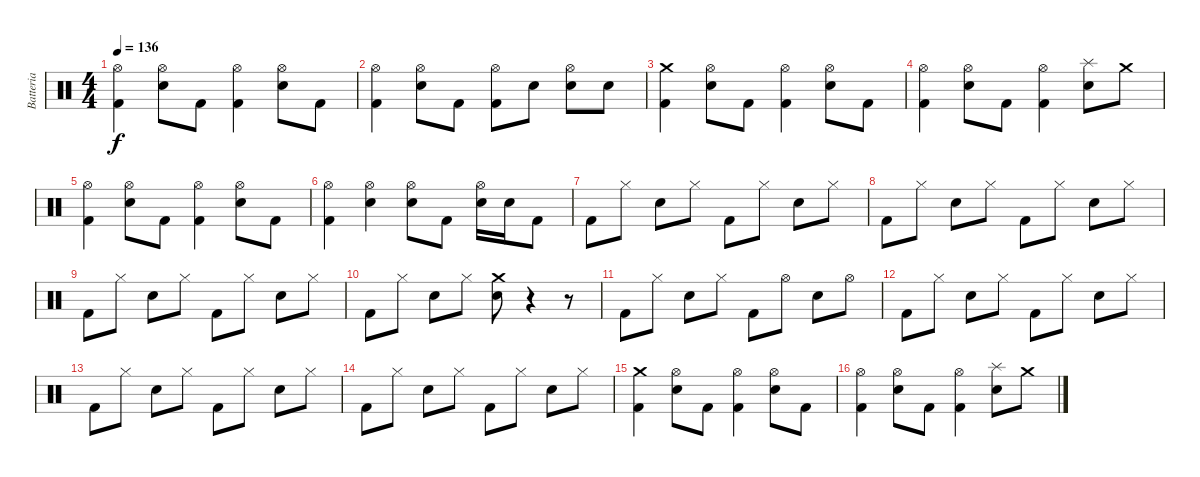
\track ("Batteria" "Batteria") {instrument percussion}
\staff {score}
\articulation defaults
\ts (4 4)
\tempo 136
\clef neutral
\ks c
("Hi-Hat (open)" "Kick (hit) 2").4{dy f} ("Hi-Hat (open)" "Electric Snare (hit)").8 "Kick (hit) 2".8 ("Hi-Hat (open)" "Kick (hit) 2").4 ("Hi-Hat (open)" "Electric Snare (hit)").8 "Kick (hit) 2".8 |
("Hi-Hat (open)" "Kick (hit) 2").4 ("Hi-Hat (open)" "Electric Snare (hit)").8 "Kick (hit) 2".8 ("Hi-Hat (open)" "Kick (hit) 2").8 "Electric Snare (hit)".8 ("Hi-Hat (open)" "Electric Snare (hit)").8 "Electric Snare (hit)".8 |
("Crash medium (hit)" "Kick (hit) 2").4 ("Hi-Hat (open)" "Electric Snare (hit)").8 "Kick (hit) 2".8 ("Hi-Hat (open)" "Kick (hit) 2").4 ("Hi-Hat (open)" "Electric Snare (hit)").8 "Kick (hit) 2".8 |
("Hi-Hat (open)" "Kick (hit) 2").4 ("Hi-Hat (open)" "Electric Snare (hit)").8 "Kick (hit) 2".8 ("Hi-Hat (open)" "Kick (hit) 2").4 ("Splash (hit)" "Electric Snare (hit)").8 "Crash medium (hit)".8 |
("Hi-Hat (open)" "Kick (hit) 2").4 ("Hi-Hat (open)" "Electric Snare (hit)").8 "Kick (hit) 2".8 ("Hi-Hat (open)" "Kick (hit) 2").4 ("Hi-Hat (open)" "Electric Snare (hit)").8 "Kick (hit) 2".8 |
("Hi-Hat (open)" "Kick (hit) 2").4 ("Hi-Hat (open)" "Electric Snare (hit)").4 ("Hi-Hat (open)" "Electric Snare (hit)").8 "Kick (hit) 2".8 ("Hi-Hat (open)" "Electric Snare (hit)").16 "Electric Snare (hit)".16 "Kick (hit) 2".8 |
"Kick (hit) 2".8 "Hi-Hat (closed)".8 "Electric Snare (hit)".8 "Hi-Hat (closed)".8 "Kick (hit) 2".8 "Hi-Hat (closed)".8 "Electric Snare (hit)".8 "Hi-Hat (closed)".8 |
"Kick (hit) 2".8 "Hi-Hat (closed)".8 "Electric Snare (hit)".8 "Hi-Hat (closed)".8 "Kick (hit) 2".8 "Hi-Hat (closed)".8 "Electric Snare (hit)".8 "Hi-Hat (closed)".8 |
"Kick (hit) 2".8 "Hi-Hat (closed)".8 "Electric Snare (hit)".8 "Hi-Hat (closed)".8 "Kick (hit) 2".8 "Hi-Hat (closed)".8 "Electric Snare (hit)".8 "Hi-Hat (closed)".8 |
"Kick (hit) 2".8 "Hi-Hat (closed)".8 "Electric Snare (hit)".8 "Hi-Hat (closed)".8 ("Electric Snare (hit)" "Crash medium (hit)").8 r.4 r.8 |
"Kick (hit) 2".8 "Hi-Hat (closed)".8 "Electric Snare (hit)".8 "Hi-Hat (closed)".8 "Kick (hit) 2".8 "Hi-Hat (open)".8 "Electric Snare (hit)".8 "Hi-Hat (open)".8 |
"Kick (hit) 2".8 "Hi-Hat (closed)".8 "Electric Snare (hit)".8 "Hi-Hat (closed)".8 "Kick (hit) 2".8 "Hi-Hat (closed)".8 "Electric Snare (hit)".8 "Hi-Hat (closed)".8 |
"Kick (hit) 2".8 "Hi-Hat (closed)".8 "Electric Snare (hit)".8 "Hi-Hat (closed)".8 "Kick (hit) 2".8 "Hi-Hat (closed)".8 "Electric Snare (hit)".8 "Hi-Hat (closed)".8 |
"Kick (hit) 2".8 "Hi-Hat (closed)".8 "Electric Snare (hit)".8 "Hi-Hat (closed)".8 "Kick (hit) 2".8 "Hi-Hat (closed)".8 "Electric Snare (hit)".8 "Hi-Hat (closed)".8 |
("Crash medium (hit)" "Kick (hit) 2").4 ("Hi-Hat (open)" "Electric Snare (hit)").8 "Kick (hit) 2".8 ("Hi-Hat (open)" "Kick (hit) 2").4 ("Hi-Hat (open)" "Electric Snare (hit)").8 "Kick (hit) 2".8 |
("Hi-Hat (open)" "Kick (hit) 2").4 ("Hi-Hat (open)" "Electric Snare (hit)").8 "Kick (hit) 2".8 ("Hi-Hat (open)" "Kick (hit) 2").4 ("Splash (hit)" "Electric Snare (hit)").8 "Crash medium (hit)".8
